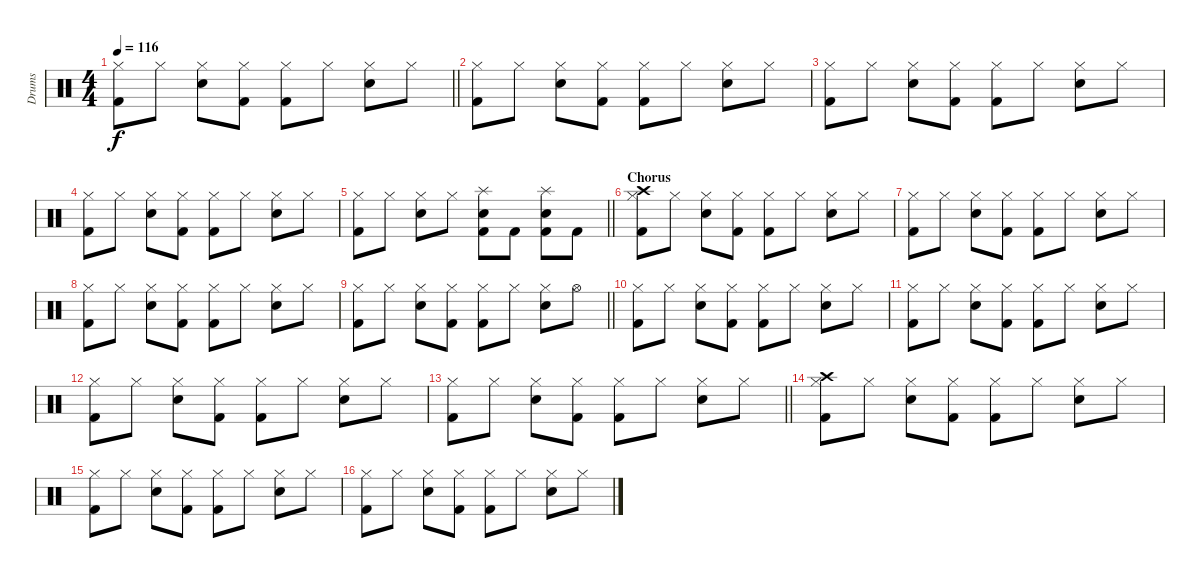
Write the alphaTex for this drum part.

\track ("Drums" "Drums") {instrument percussion}
\staff {score}
\articulation defaults
\ts (4 4)
\tempo 116
\clef neutral
\barLineRight lightlight
\ks c
("Kick (hit) 2" "Hi-Hat (closed)").8{dy f} "Hi-Hat (closed)".8 ("Electric Snare (hit)" "Hi-Hat (closed)").8 ("Kick (hit) 2" "Hi-Hat (closed)").8 ("Kick (hit) 2" "Hi-Hat (closed)").8 "Hi-Hat (closed)".8 ("Electric Snare (hit)" "Hi-Hat (closed)").8 "Hi-Hat (closed)".8 |
("Kick (hit) 2" "Hi-Hat (closed)").8 "Hi-Hat (closed)".8 ("Electric Snare (hit)" "Hi-Hat (closed)").8 ("Kick (hit) 2" "Hi-Hat (closed)").8 ("Kick (hit) 2" "Hi-Hat (closed)").8 "Hi-Hat (closed)".8 ("Electric Snare (hit)" "Hi-Hat (closed)").8 "Hi-Hat (closed)".8 |
("Kick (hit) 2" "Hi-Hat (closed)").8 "Hi-Hat (closed)".8 ("Electric Snare (hit)" "Hi-Hat (closed)").8 ("Kick (hit) 2" "Hi-Hat (closed)").8 ("Kick (hit) 2" "Hi-Hat (closed)").8 "Hi-Hat (closed)".8 ("Electric Snare (hit)" "Hi-Hat (closed)").8 "Hi-Hat (closed)".8 |
("Kick (hit) 2" "Hi-Hat (closed)").8 "Hi-Hat (closed)".8 ("Electric Snare (hit)" "Hi-Hat (closed)").8 ("Kick (hit) 2" "Hi-Hat (closed)").8 ("Kick (hit) 2" "Hi-Hat (closed)").8 "Hi-Hat (closed)".8 ("Electric Snare (hit)" "Hi-Hat (closed)").8 "Hi-Hat (closed)".8 |
\barLineRight lightlight
("Kick (hit) 2" "Hi-Hat (closed)").8 "Hi-Hat (closed)".8 ("Electric Snare (hit)" "Hi-Hat (closed)").8 "Hi-Hat (closed)".8 ("Electric Snare (hit)" "Kick (hit) 2" "Splash (hit)").8 "Kick (hit) 2".8 ("Electric Snare (hit)" "Kick (hit) 2" "Splash (hit)").8 "Kick (hit) 2".8 |
\section ("" "Chorus")
("Crash high (hit)" "Kick (hit) 2" "Hi-Hat (closed)").8 "Hi-Hat (closed)".8 ("Electric Snare (hit)" "Hi-Hat (closed)").8 ("Kick (hit) 2" "Hi-Hat (closed)").8 ("Kick (hit) 2" "Hi-Hat (closed)").8 "Hi-Hat (closed)".8 ("Electric Snare (hit)" "Hi-Hat (closed)").8 "Hi-Hat (closed)".8 |
("Kick (hit) 2" "Hi-Hat (closed)").8 "Hi-Hat (closed)".8 ("Electric Snare (hit)" "Hi-Hat (closed)").8 ("Kick (hit) 2" "Hi-Hat (closed)").8 ("Kick (hit) 2" "Hi-Hat (closed)").8 "Hi-Hat (closed)".8 ("Electric Snare (hit)" "Hi-Hat (closed)").8 "Hi-Hat (closed)".8 |
("Kick (hit) 2" "Hi-Hat (closed)").8 "Hi-Hat (closed)".8 ("Electric Snare (hit)" "Hi-Hat (closed)").8 ("Kick (hit) 2" "Hi-Hat (closed)").8 ("Kick (hit) 2" "Hi-Hat (closed)").8 "Hi-Hat (closed)".8 ("Electric Snare (hit)" "Hi-Hat (closed)").8 "Hi-Hat (closed)".8 |
\barLineRight lightlight
("Kick (hit) 2" "Hi-Hat (closed)").8 "Hi-Hat (closed)".8 ("Electric Snare (hit)" "Hi-Hat (closed)").8 ("Kick (hit) 2" "Hi-Hat (closed)").8 ("Kick (hit) 2" "Hi-Hat (closed)").8 "Hi-Hat (closed)".8 ("Electric Snare (hit)" "Hi-Hat (closed)").8 "Hi-Hat (open)".8 |
("Kick (hit) 2" "Hi-Hat (closed)").8 "Hi-Hat (closed)".8 ("Electric Snare (hit)" "Hi-Hat (closed)").8 ("Kick (hit) 2" "Hi-Hat (closed)").8 ("Kick (hit) 2" "Hi-Hat (closed)").8 "Hi-Hat (closed)".8 ("Electric Snare (hit)" "Hi-Hat (closed)").8 "Hi-Hat (closed)".8 |
("Kick (hit) 2" "Hi-Hat (closed)").8 "Hi-Hat (closed)".8 ("Electric Snare (hit)" "Hi-Hat (closed)").8 ("Kick (hit) 2" "Hi-Hat (closed)").8 ("Kick (hit) 2" "Hi-Hat (closed)").8 "Hi-Hat (closed)".8 ("Electric Snare (hit)" "Hi-Hat (closed)").8 "Hi-Hat (closed)".8 |
("Kick (hit) 2" "Hi-Hat (closed)").8 "Hi-Hat (closed)".8 ("Electric Snare (hit)" "Hi-Hat (closed)").8 ("Kick (hit) 2" "Hi-Hat (closed)").8 ("Kick (hit) 2" "Hi-Hat (closed)").8 "Hi-Hat (closed)".8 ("Electric Snare (hit)" "Hi-Hat (closed)").8 "Hi-Hat (closed)".8 |
\barLineRight lightlight
("Kick (hit) 2" "Hi-Hat (closed)").8 "Hi-Hat (closed)".8 ("Electric Snare (hit)" "Hi-Hat (closed)").8 ("Kick (hit) 2" "Hi-Hat (closed)").8 ("Kick (hit) 2" "Hi-Hat (closed)").8 "Hi-Hat (closed)".8 ("Electric Snare (hit)" "Hi-Hat (closed)").8 "Hi-Hat (closed)".8 |
("Crash high (hit)" "Kick (hit) 2" "Hi-Hat (closed)").8 "Hi-Hat (closed)".8 ("Electric Snare (hit)" "Hi-Hat (closed)").8 ("Kick (hit) 2" "Hi-Hat (closed)").8 ("Kick (hit) 2" "Hi-Hat (closed)").8 "Hi-Hat (closed)".8 ("Electric Snare (hit)" "Hi-Hat (closed)").8 "Hi-Hat (closed)".8 |
("Kick (hit) 2" "Hi-Hat (closed)").8 "Hi-Hat (closed)".8 ("Electric Snare (hit)" "Hi-Hat (closed)").8 ("Kick (hit) 2" "Hi-Hat (closed)").8 ("Kick (hit) 2" "Hi-Hat (closed)").8 "Hi-Hat (closed)".8 ("Electric Snare (hit)" "Hi-Hat (closed)").8 "Hi-Hat (closed)".8 |
("Kick (hit) 2" "Hi-Hat (closed)").8 "Hi-Hat (closed)".8 ("Electric Snare (hit)" "Hi-Hat (closed)").8 ("Kick (hit) 2" "Hi-Hat (closed)").8 ("Kick (hit) 2" "Hi-Hat (closed)").8 "Hi-Hat (closed)".8 ("Electric Snare (hit)" "Hi-Hat (closed)").8 "Hi-Hat (closed)".8
